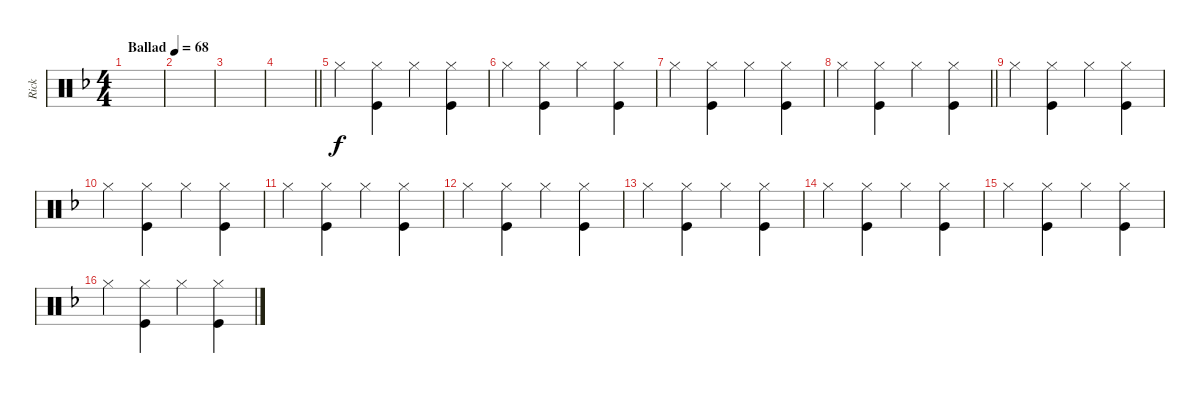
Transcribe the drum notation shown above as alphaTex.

\track ("Rick " "Rick ") {instrument percussion}
\staff {score}
\articulation defaults
\ts (4 4)
\tempo (68 "Ballad")
\clef neutral
\ks dminor
|
|
|
\barLineRight lightlight
|
"Hi-Hat (closed)".4 ("Hi-Hat (closed)" "Kick (hit)").4 "Hi-Hat (closed)".4 ("Hi-Hat (closed)" "Kick (hit)").4 |
"Hi-Hat (closed)".4 ("Hi-Hat (closed)" "Kick (hit)").4 "Hi-Hat (closed)".4 ("Hi-Hat (closed)" "Kick (hit)").4 |
"Hi-Hat (closed)".4 ("Hi-Hat (closed)" "Kick (hit)").4 "Hi-Hat (closed)".4 ("Hi-Hat (closed)" "Kick (hit)").4 |
\barLineRight lightlight "Hi-Hat (closed)".4
("Hi-Hat (closed)" "Kick (hit)").4 "Hi-Hat (closed)".4 ("Hi-Hat (closed)" "Kick (hit)").4 |
"Hi-Hat (closed)".4 ("Hi-Hat (closed)" "Kick (hit)").4 "Hi-Hat (closed)".4 ("Hi-Hat (closed)" "Kick (hit)").4 |
"Hi-Hat (closed)".4 ("Hi-Hat (closed)" "Kick (hit)").4 "Hi-Hat (closed)".4 ("Hi-Hat (closed)" "Kick (hit)").4 |
"Hi-Hat (closed)".4 ("Hi-Hat (closed)" "Kick (hit)").4 "Hi-Hat (closed)".4 ("Hi-Hat (closed)" "Kick (hit)").4 |
"Hi-Hat (closed)".4 ("Hi-Hat (closed)" "Kick (hit)").4 "Hi-Hat (closed)".4 ("Hi-Hat (closed)" "Kick (hit)").4 |
"Hi-Hat (closed)".4 ("Hi-Hat (closed)" "Kick (hit)").4 "Hi-Hat (closed)".4 ("Hi-Hat (closed)" "Kick (hit)").4 |
"Hi-Hat (closed)".4 ("Hi-Hat (closed)" "Kick (hit)").4 "Hi-Hat (closed)".4 ("Hi-Hat (closed)" "Kick (hit)").4 |
"Hi-Hat (closed)".4 ("Hi-Hat (closed)" "Kick (hit)").4 "Hi-Hat (closed)".4 ("Hi-Hat (closed)" "Kick (hit)").4 |
"Hi-Hat (closed)".4 ("Hi-Hat (closed)" "Kick (hit)").4 "Hi-Hat (closed)".4 ("Hi-Hat (closed)" "Kick (hit)").4
